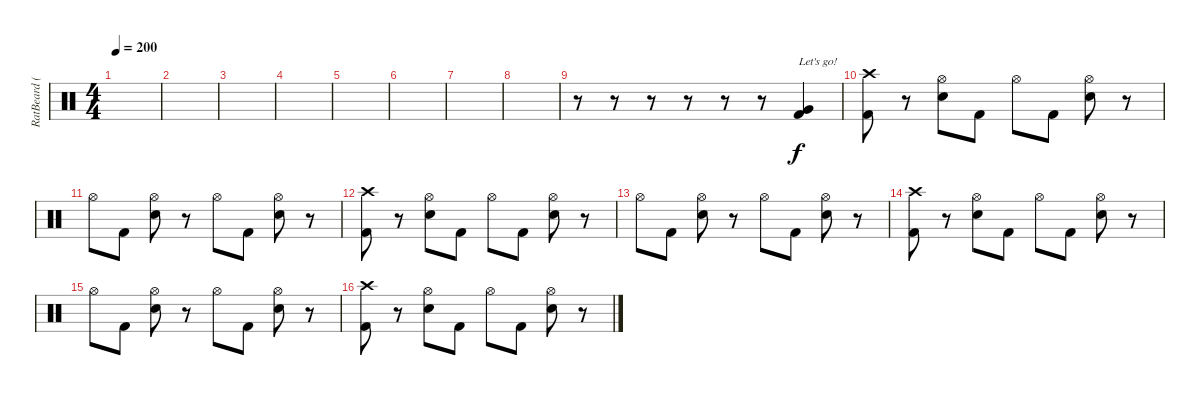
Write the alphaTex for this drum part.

\track ("RatBeard (Drum)" "RatBeard (") {instrument percussion}
\staff {score}
\articulation defaults
\ts (4 4)
\tempo 200
\clef neutral
\ks c
|
|
|
|
|
|
|
|
r.8 r.8 r.8 r.8 r.8 r.8 ("Very Low Tom (hit)" "Kick (hit) 2").4{txt "Let's go!"} |
("Crash high (hit)" "Kick (hit) 2").8 r.8 ("Hi-Hat (open)" "Electric Snare (hit)").8 "Kick (hit) 2".8 "Hi-Hat (open)".8 "Kick (hit) 2".8 ("Hi-Hat (open)" "Electric Snare (hit)").8 r.8 |
"Hi-Hat (open)".8 "Kick (hit) 2".8 ("Hi-Hat (open)" "Electric Snare (hit)").8 r.8 "Hi-Hat (open)".8 "Kick (hit) 2".8 ("Hi-Hat (open)" "Electric Snare (hit)").8 r.8 |
("Crash high (hit)" "Kick (hit) 2").8 r.8 ("Hi-Hat (open)" "Electric Snare (hit)").8 "Kick (hit) 2".8 "Hi-Hat (open)".8 "Kick (hit) 2".8 ("Hi-Hat (open)" "Electric Snare (hit)").8 r.8 |
"Hi-Hat (open)".8 "Kick (hit) 2".8 ("Hi-Hat (open)" "Electric Snare (hit)").8 r.8 "Hi-Hat (open)".8 "Kick (hit) 2".8 ("Hi-Hat (open)" "Electric Snare (hit)").8 r.8 |
("Crash high (hit)" "Kick (hit) 2").8 r.8 ("Hi-Hat (open)" "Electric Snare (hit)").8 "Kick (hit) 2".8 "Hi-Hat (open)".8 "Kick (hit) 2".8 ("Hi-Hat (open)" "Electric Snare (hit)").8 r.8 |
"Hi-Hat (open)".8 "Kick (hit) 2".8 ("Hi-Hat (open)" "Electric Snare (hit)").8 r.8 "Hi-Hat (open)".8 "Kick (hit) 2".8 ("Hi-Hat (open)" "Electric Snare (hit)").8 r.8 |
("Crash high (hit)" "Kick (hit) 2").8 r.8 ("Hi-Hat (open)" "Electric Snare (hit)").8 "Kick (hit) 2".8 "Hi-Hat (open)".8 "Kick (hit) 2".8 ("Hi-Hat (open)" "Electric Snare (hit)").8 r.8
